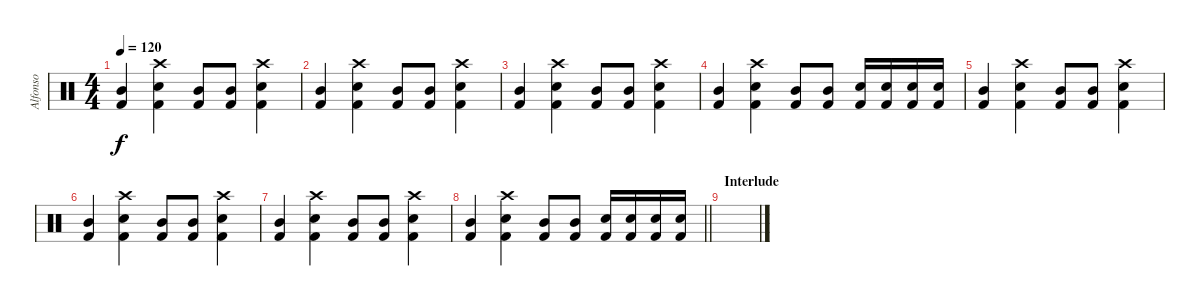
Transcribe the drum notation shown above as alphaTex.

\track ("Alfonso" "Alfonso") {instrument percussion}
\staff {score}
\articulation defaults
\ts (4 4)
\tempo 120
\clef neutral
\ks c
("Kick (hit) 2" "Mid Tom (hit)").4{dy f} ("Kick (hit) 2" "Snare (hit) 2" "Crash high (hit)").4 ("Kick (hit) 2" "Mid Tom (hit)").8 ("Kick (hit) 2" "Mid Tom (hit)").8 ("Kick (hit) 2" "Snare (hit) 2" "Crash high (hit)").4 |
("Kick (hit) 2" "Mid Tom (hit)").4 ("Kick (hit) 2" "Snare (hit) 2" "Crash high (hit)").4 ("Kick (hit) 2" "Mid Tom (hit)").8 ("Kick (hit) 2" "Mid Tom (hit)").8 ("Kick (hit) 2" "Snare (hit) 2" "Crash high (hit)").4 |
("Kick (hit) 2" "Mid Tom (hit)").4 ("Kick (hit) 2" "Snare (hit) 2" "Crash high (hit)").4 ("Kick (hit) 2" "Mid Tom (hit)").8 ("Kick (hit) 2" "Mid Tom (hit)").8 ("Kick (hit) 2" "Snare (hit) 2" "Crash high (hit)").4 |
("Kick (hit) 2" "Mid Tom (hit)").4 ("Kick (hit) 2" "Snare (hit) 2" "Crash high (hit)").4 ("Kick (hit) 2" "Mid Tom (hit)").8 ("Kick (hit) 2" "Mid Tom (hit)").8 ("Kick (hit) 2" "Snare (hit) 2").16 ("Kick (hit) 2" "Snare (hit) 2").16 ("Kick (hit) 2" "Snare (hit) 2").16 ("Kick (hit) 2" "Snare (hit) 2").16 |
("Kick (hit) 2" "Mid Tom (hit)").4 ("Kick (hit) 2" "Snare (hit) 2" "Crash high (hit)").4 ("Kick (hit) 2" "Mid Tom (hit)").8 ("Kick (hit) 2" "Mid Tom (hit)").8 ("Kick (hit) 2" "Snare (hit) 2" "Crash high (hit)").4 |
("Kick (hit) 2" "Mid Tom (hit)").4 ("Kick (hit) 2" "Snare (hit) 2" "Crash high (hit)").4 ("Kick (hit) 2" "Mid Tom (hit)").8 ("Kick (hit) 2" "Mid Tom (hit)").8 ("Kick (hit) 2" "Snare (hit) 2" "Crash high (hit)").4 |
("Kick (hit) 2" "Mid Tom (hit)").4 ("Kick (hit) 2" "Snare (hit) 2" "Crash high (hit)").4 ("Kick (hit) 2" "Mid Tom (hit)").8 ("Kick (hit) 2" "Mid Tom (hit)").8 ("Kick (hit) 2" "Snare (hit) 2" "Crash high (hit)").4 |
\barLineRight lightlight
("Kick (hit) 2" "Mid Tom (hit)").4 ("Kick (hit) 2" "Snare (hit) 2" "Crash high (hit)").4 ("Kick (hit) 2" "Mid Tom (hit)").8 ("Kick (hit) 2" "Mid Tom (hit)").8 ("Kick (hit) 2" "Snare (hit) 2").16 ("Kick (hit) 2" "Snare (hit) 2").16 ("Kick (hit) 2" "Snare (hit) 2").16 ("Kick (hit) 2" "Snare (hit) 2").16 |
\section ("" "Interlude")
